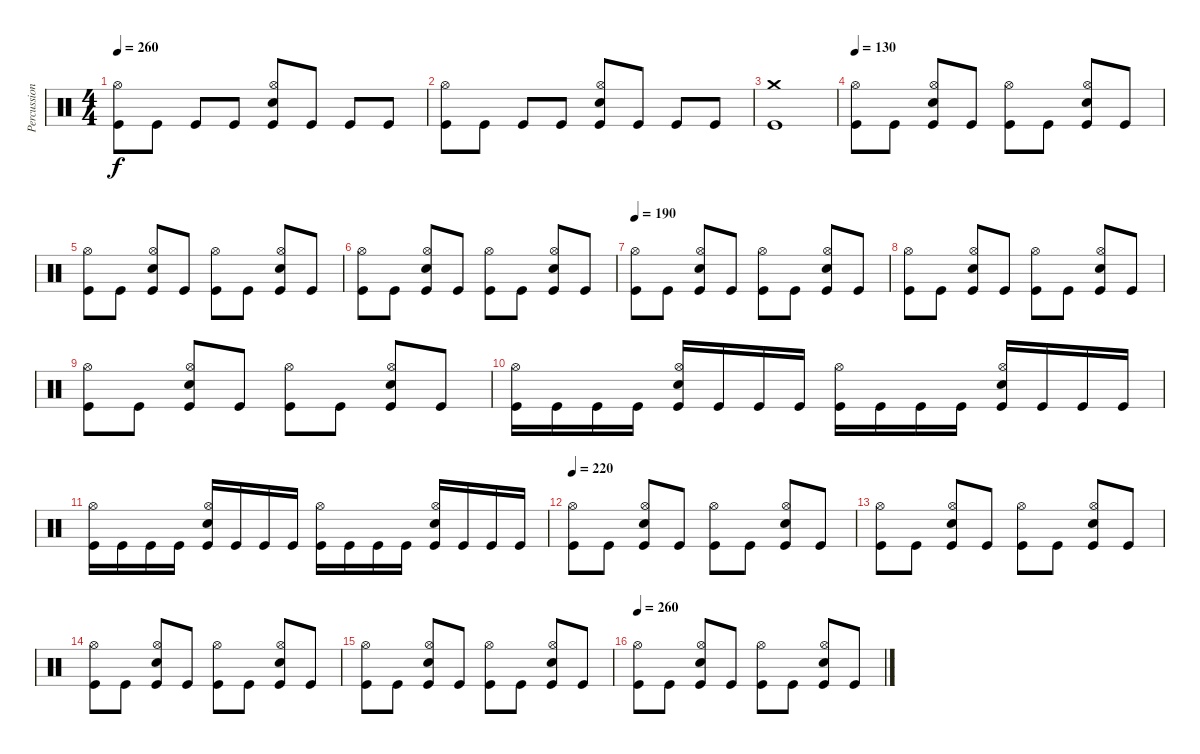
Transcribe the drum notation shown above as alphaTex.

\track ("Percussion" "Percussion") {instrument percussion}
\staff {score}
\articulation defaults
\ts (4 4)
\tempo 260
\clef neutral
\ks c
("Kick (hit)" "Hi-Hat (open)").8{dy f} "Kick (hit)".8 "Kick (hit)".8 "Kick (hit)".8 ("Kick (hit)" "Snare (hit) 2" "Hi-Hat (open)").8 "Kick (hit)".8 "Kick (hit)".8 "Kick (hit)".8 |
("Kick (hit)" "Hi-Hat (open)").8 "Kick (hit)".8 "Kick (hit)".8 "Kick (hit)".8 ("Kick (hit)" "Snare (hit) 2" "Hi-Hat (open)").8 "Kick (hit)".8 "Kick (hit)".8 "Kick (hit)".8 |
("Crash medium (hit)" "Kick (hit)").1 |
\tempo 130
("Kick (hit)" "Hi-Hat (open)").8 "Kick (hit)".8 ("Kick (hit)" "Snare (hit) 2" "Hi-Hat (open)").8 "Kick (hit)".8 ("Kick (hit)" "Hi-Hat (open)").8 "Kick (hit)".8 ("Kick (hit)" "Snare (hit) 2" "Hi-Hat (open)").8 "Kick (hit)".8 |
("Kick (hit)" "Hi-Hat (open)").8 "Kick (hit)".8 ("Kick (hit)" "Snare (hit) 2" "Hi-Hat (open)").8 "Kick (hit)".8 ("Kick (hit)" "Hi-Hat (open)").8 "Kick (hit)".8 ("Kick (hit)" "Snare (hit) 2" "Hi-Hat (open)").8 "Kick (hit)".8 |
("Kick (hit)" "Hi-Hat (open)").8 "Kick (hit)".8 ("Kick (hit)" "Snare (hit) 2" "Hi-Hat (open)").8 "Kick (hit)".8 ("Kick (hit)" "Hi-Hat (open)").8 "Kick (hit)".8 ("Kick (hit)" "Snare (hit) 2" "Hi-Hat (open)").8 "Kick (hit)".8 |
\tempo 190
("Kick (hit)" "Hi-Hat (open)").8 "Kick (hit)".8 ("Kick (hit)" "Snare (hit) 2" "Hi-Hat (open)").8 "Kick (hit)".8 ("Kick (hit)" "Hi-Hat (open)").8 "Kick (hit)".8 ("Kick (hit)" "Snare (hit) 2" "Hi-Hat (open)").8 "Kick (hit)".8 |
("Kick (hit)" "Hi-Hat (open)").8 "Kick (hit)".8 ("Kick (hit)" "Snare (hit) 2" "Hi-Hat (open)").8 "Kick (hit)".8 ("Kick (hit)" "Hi-Hat (open)").8 "Kick (hit)".8 ("Kick (hit)" "Snare (hit) 2" "Hi-Hat (open)").8 "Kick (hit)".8 |
("Kick (hit)" "Hi-Hat (open)").8 "Kick (hit)".8 ("Kick (hit)" "Snare (hit) 2" "Hi-Hat (open)").8 "Kick (hit)".8 ("Kick (hit)" "Hi-Hat (open)").8 "Kick (hit)".8 ("Kick (hit)" "Snare (hit) 2" "Hi-Hat (open)").8 "Kick (hit)".8 |
("Kick (hit)" "Hi-Hat (open)").16 "Kick (hit)".16 "Kick (hit)".16 "Kick (hit)".16 ("Kick (hit)" "Snare (hit) 2" "Hi-Hat (open)").16 "Kick (hit)".16 "Kick (hit)".16 "Kick (hit)".16 ("Kick (hit)" "Hi-Hat (open)").16 "Kick (hit)".16 "Kick (hit)".16 "Kick (hit)".16 ("Kick (hit)" "Snare (hit) 2" "Hi-Hat (open)").16 "Kick (hit)".16 "Kick (hit)".16 "Kick (hit)".16 |
("Kick (hit)" "Hi-Hat (open)").16 "Kick (hit)".16 "Kick (hit)".16 "Kick (hit)".16 ("Kick (hit)" "Snare (hit) 2" "Hi-Hat (open)").16 "Kick (hit)".16 "Kick (hit)".16 "Kick (hit)".16 ("Kick (hit)" "Hi-Hat (open)").16 "Kick (hit)".16 "Kick (hit)".16 "Kick (hit)".16 ("Kick (hit)" "Snare (hit) 2" "Hi-Hat (open)").16 "Kick (hit)".16 "Kick (hit)".16 "Kick (hit)".16 |
\tempo 220
("Kick (hit)" "Hi-Hat (open)").8 "Kick (hit)".8 ("Kick (hit)" "Snare (hit) 2" "Hi-Hat (open)").8 "Kick (hit)".8 ("Kick (hit)" "Hi-Hat (open)").8 "Kick (hit)".8 ("Kick (hit)" "Snare (hit) 2" "Hi-Hat (open)").8 "Kick (hit)".8 |
("Kick (hit)" "Hi-Hat (open)").8 "Kick (hit)".8 ("Kick (hit)" "Snare (hit) 2" "Hi-Hat (open)").8 "Kick (hit)".8 ("Kick (hit)" "Hi-Hat (open)").8 "Kick (hit)".8 ("Kick (hit)" "Snare (hit) 2" "Hi-Hat (open)").8 "Kick (hit)".8 |
("Kick (hit)" "Hi-Hat (open)").8 "Kick (hit)".8 ("Kick (hit)" "Snare (hit) 2" "Hi-Hat (open)").8 "Kick (hit)".8 ("Kick (hit)" "Hi-Hat (open)").8 "Kick (hit)".8 ("Kick (hit)" "Snare (hit) 2" "Hi-Hat (open)").8 "Kick (hit)".8 |
("Kick (hit)" "Hi-Hat (open)").8 "Kick (hit)".8 ("Kick (hit)" "Snare (hit) 2" "Hi-Hat (open)").8 "Kick (hit)".8 ("Kick (hit)" "Hi-Hat (open)").8 "Kick (hit)".8 ("Kick (hit)" "Snare (hit) 2" "Hi-Hat (open)").8 "Kick (hit)".8 |
\tempo 260
("Kick (hit)" "Hi-Hat (open)").8 "Kick (hit)".8 ("Kick (hit)" "Snare (hit) 2" "Hi-Hat (open)").8 "Kick (hit)".8 ("Kick (hit)" "Hi-Hat (open)").8 "Kick (hit)".8 ("Kick (hit)" "Snare (hit) 2" "Hi-Hat (open)").8 "Kick (hit)".8
